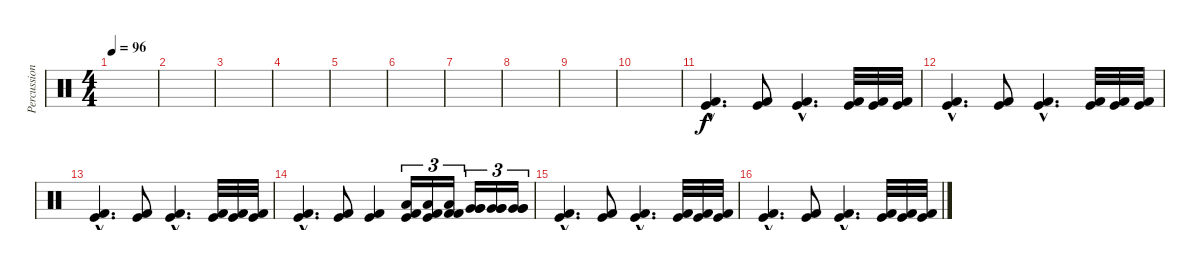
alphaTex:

\track ("Percussion" "Percussion") {instrument percussion}
\staff {score}
\articulation defaults
\ts (4 4)
\tempo 96
\clef neutral
\ks c
|
|
|
|
|
|
|
|
|
|
("Kick (hit) 2"{hac} "Kick (hit)"{hac}).4{d} ("Kick (hit) 2" "Kick (hit)").8 ("Kick (hit)"{hac} "Kick (hit) 2"{hac}).4{d} ("Kick (hit) 2" "Kick (hit)").32 ("Kick (hit) 2" "Kick (hit)").32 ("Kick (hit) 2" "Kick (hit)").32 |
("Kick (hit) 2"{hac} "Kick (hit)"{hac}).4{d} ("Kick (hit) 2" "Kick (hit)").8 ("Kick (hit)"{hac} "Kick (hit) 2"{hac}).4{d} ("Kick (hit) 2" "Kick (hit)").32 ("Kick (hit) 2" "Kick (hit)").32 ("Kick (hit) 2" "Kick (hit)").32 |
("Kick (hit) 2"{hac} "Kick (hit)"{hac}).4{d} ("Kick (hit) 2" "Kick (hit)").8 ("Kick (hit)"{hac} "Kick (hit) 2"{hac}).4{d} ("Kick (hit) 2" "Kick (hit)").32 ("Kick (hit) 2" "Kick (hit)").32 ("Kick (hit) 2" "Kick (hit)").32 |
("Kick (hit) 2"{hac} "Kick (hit)"{hac}).4{d} ("Kick (hit) 2" "Kick (hit)").8 ("Kick (hit)" "Kick (hit) 2").4 ("Low Tom (hit)" "Kick (hit) 2" "Kick (hit)").16{tu (3 2)} ("Low Tom (hit)" "Kick (hit) 2" "Kick (hit)").16{tu (3 2)} ("Low Tom (hit)" "Kick (hit) 2" "Kick (hit) 2").16{tu (3 2)} ("Very Low Tom (hit)" "Very Low Tom (hit)" "Very Low Tom (hit)").16{tu (3 2)} ("Very Low Tom (hit)" "Very Low Tom (hit)" "Very Low Tom (hit)").16{tu (3 2)} ("Very Low Tom (hit)" "Very Low Tom (hit)" "Very Low Tom (hit)").16{tu (3 2)} |
("Kick (hit) 2"{hac} "Kick (hit)"{hac}).4{d} ("Kick (hit) 2" "Kick (hit)").8 ("Kick (hit)"{hac} "Kick (hit) 2"{hac}).4{d} ("Kick (hit) 2" "Kick (hit)").32 ("Kick (hit) 2" "Kick (hit)").32 ("Kick (hit) 2" "Kick (hit)").32 |
("Kick (hit) 2"{hac} "Kick (hit)"{hac}).4{d} ("Kick (hit) 2" "Kick (hit)").8 ("Kick (hit)"{hac} "Kick (hit) 2"{hac}).4{d} ("Kick (hit) 2" "Kick (hit)").32 ("Kick (hit) 2" "Kick (hit)").32 ("Kick (hit) 2" "Kick (hit)").32
